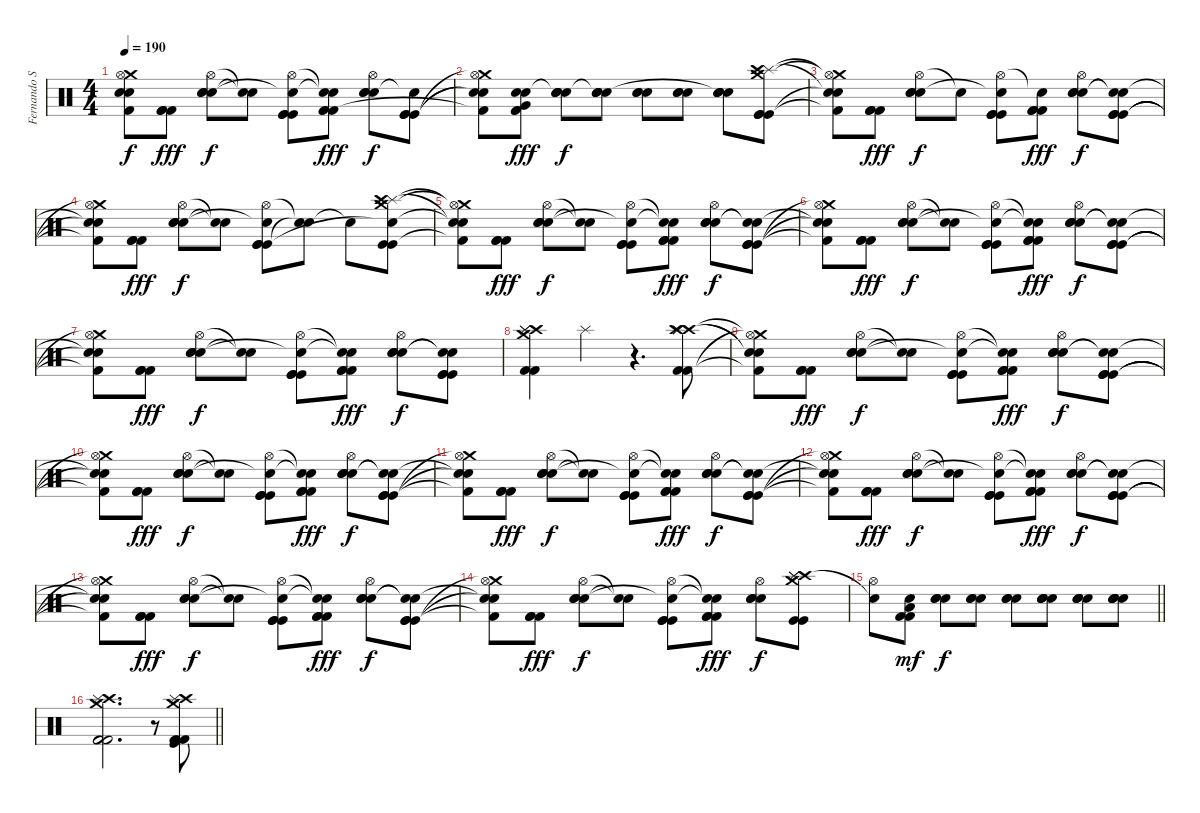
\track ("Fernando Scarcella" "Fernando S") {instrument percussion}
\staff {score}
\articulation defaults
\ts (4 4)
\tempo 190
\clef neutral
\ks c
("Crash medium (hit)"{t} "Hi-Hat (open)"{t} "Snare (hit)"{t} "Snare (hit)"{t} "Kick (hit) 2"{t}).8{dy f} ("Kick (hit) 2" "Kick (hit) 2" "Kick (hit) 2").8{dy fff} ("Hi-Hat (open)" "Electric Snare (hit)" "Electric Snare (hit)" "Electric Snare (hit)").8{dy f} ("Snare (hit)"{t} "Snare (hit)"{t}).8 ("Kick (hit)" "Hi-Hat (open)" "Snare (hit)"{t} "Kick (hit)" "Kick (hit)").8 ("Kick (hit) 2" "Snare (hit)"{t} "Snare (hit)"{t} "Kick (hit) 2" "Kick (hit) 2").8{dy fff} ("Hi-Hat (open)" "Electric Snare (hit)" "Electric Snare (hit)" "Electric Snare (hit)").8{dy f} ("Kick (hit)" "Snare (hit)"{t} "Kick (hit)" "Kick (hit)").8 |
("Crash medium (hit)"{t} "Hi-Hat (open)" "Snare (hit)"{t} "Snare (hit)"{t} "Kick (hit) 2"{t}).8 ("Kick (hit) 2" "Electric Snare (hit)" "Very Low Tom (hit)" "Electric Snare (hit)" "Kick (hit) 2").8{dy fff} ("Electric Snare (hit)" "Electric Snare (hit)" "Electric Snare (hit)" "Snare (hit)"{t}).8{dy f} ("Electric Snare (hit)" "Electric Snare (hit)" "Electric Snare (hit)" "Snare (hit)"{t}).8 ("Electric Snare (hit)" "Electric Snare (hit)" "Electric Snare (hit)").8 ("Electric Snare (hit)" "Electric Snare (hit)" "Electric Snare (hit)").8 ("Electric Snare (hit)" "Electric Snare (hit)" "Electric Snare (hit)" "Snare (hit)"{t}).8 ("Crash medium (hit)" "Splash (hit)" "Crash high (hit)" "Kick (hit)" "Kick (hit)" "Kick (hit)").8 |
("Crash medium (hit)"{t} "Hi-Hat (open)"{t} "Snare (hit)"{t} "Snare (hit)"{t} "Kick (hit) 2"{t}).8 ("Kick (hit) 2" "Kick (hit) 2" "Kick (hit) 2").8{dy fff} ("Hi-Hat (open)" "Electric Snare (hit)" "Electric Snare (hit)" "Electric Snare (hit)").8{dy f} "Snare (hit)"{t}.8 ("Kick (hit)" "Hi-Hat (open)" "Snare (hit)"{t} "Kick (hit)" "Kick (hit)").8 ("Kick (hit) 2" "Snare (hit)"{t} "Kick (hit) 2" "Kick (hit) 2").8{dy fff} ("Hi-Hat (open)" "Electric Snare (hit)" "Electric Snare (hit)" "Electric Snare (hit)").8{dy f} ("Kick (hit)" "Snare (hit)"{t} "Snare (hit)"{t} "Kick (hit)" "Kick (hit)").8 |
("Crash medium (hit)"{t} "Hi-Hat (open)" "Snare (hit)"{t} "Snare (hit)"{t} "Kick (hit) 2"{t}).8 ("Kick (hit) 2" "Kick (hit) 2" "Kick (hit) 2").8{dy fff} ("Hi-Hat (open)" "Electric Snare (hit)" "Electric Snare (hit)" "Electric Snare (hit)").8{dy f} ("Snare (hit)"{t} "Snare (hit)"{t}).8 ("Kick (hit)" "Hi-Hat (open)" "Snare (hit)"{t} "Kick (hit)" "Kick (hit)").8 ("Snare (hit)"{t} "Snare (hit)"{t}).8 "Snare (hit)"{t}.8 ("Crash medium (hit)" "Splash (hit)" "Crash high (hit)" "Snare (hit)"{t} "Kick (hit)" "Kick (hit)").8 |
("Crash medium (hit)"{t} "Hi-Hat (open)"{t} "Snare (hit)"{t} "Snare (hit)"{t} "Kick (hit) 2"{t}).8 ("Kick (hit) 2" "Kick (hit) 2" "Kick (hit) 2").8{dy fff} ("Hi-Hat (open)" "Electric Snare (hit)" "Electric Snare (hit)" "Electric Snare (hit)").8{dy f} ("Snare (hit)"{t} "Snare (hit)"{t}).8 ("Kick (hit)" "Hi-Hat (open)" "Snare (hit)"{t} "Kick (hit)" "Kick (hit)").8 ("Kick (hit) 2" "Snare (hit)"{t} "Snare (hit)"{t} "Kick (hit) 2" "Kick (hit) 2").8{dy fff} ("Hi-Hat (open)" "Electric Snare (hit)" "Electric Snare (hit)" "Electric Snare (hit)").8{dy f} ("Kick (hit)" "Snare (hit)"{t} "Snare (hit)"{t} "Kick (hit)" "Kick (hit)").8 |
("Crash medium (hit)"{t} "Hi-Hat (open)" "Snare (hit)"{t} "Snare (hit)"{t} "Kick (hit) 2"{t}).8 ("Kick (hit) 2" "Kick (hit) 2" "Kick (hit) 2").8{dy fff} ("Hi-Hat (open)" "Electric Snare (hit)" "Electric Snare (hit)" "Electric Snare (hit)").8{dy f} ("Snare (hit)"{t} "Snare (hit)"{t}).8 ("Kick (hit)" "Hi-Hat (open)" "Snare (hit)"{t} "Kick (hit)" "Kick (hit)").8 ("Kick (hit) 2" "Snare (hit)"{t} "Snare (hit)"{t} "Kick (hit) 2" "Kick (hit) 2").8{dy fff} ("Hi-Hat (open)" "Electric Snare (hit)" "Electric Snare (hit)" "Electric Snare (hit)").8{dy f} ("Kick (hit)" "Snare (hit)"{t} "Snare (hit)"{t} "Kick (hit)" "Kick (hit)").8 |
("Crash medium (hit)"{t} "Hi-Hat (open)" "Snare (hit)"{t} "Snare (hit)"{t} "Kick (hit) 2"{t}).8 ("Kick (hit) 2" "Kick (hit) 2" "Kick (hit) 2").8{dy fff} ("Hi-Hat (open)" "Electric Snare (hit)" "Electric Snare (hit)" "Electric Snare (hit)").8{dy f} ("Snare (hit)"{t} "Snare (hit)"{t}).8 ("Kick (hit)" "Hi-Hat (open)" "Snare (hit)"{t} "Kick (hit)" "Kick (hit)").8 ("Kick (hit) 2" "Snare (hit)"{t} "Snare (hit)"{t} "Kick (hit) 2" "Kick (hit) 2").8{dy fff} ("Hi-Hat (open)" "Electric Snare (hit)" "Electric Snare (hit)" "Electric Snare (hit)").8{dy f} ("Kick (hit)" "Snare (hit)"{t} "Snare (hit)"{t} "Kick (hit)" "Kick (hit)").8 |
("Kick (hit) 2" "Crash high (hit)" "Crash medium (hit)" "Splash (hit)" "Kick (hit) 2" "Splash (hit)").4 "Splash (hit)".4 r.4{d} ("Kick (hit) 2" "Crash high (hit)" "Crash high (hit)" "Splash (hit)" "Kick (hit) 2" "Splash (hit)").8 |
("Crash medium (hit)"{t} "Hi-Hat (open)"{t} "Snare (hit)"{t} "Snare (hit)"{t} "Kick (hit) 2"{t}).8 ("Kick (hit) 2" "Kick (hit) 2" "Kick (hit) 2").8{dy fff} ("Hi-Hat (open)" "Electric Snare (hit)" "Electric Snare (hit)" "Electric Snare (hit)").8{dy f} ("Snare (hit)"{t} "Snare (hit)"{t}).8 ("Kick (hit)" "Hi-Hat (open)" "Snare (hit)"{t} "Kick (hit)" "Kick (hit)").8 ("Kick (hit) 2" "Snare (hit)"{t} "Snare (hit)"{t} "Kick (hit) 2" "Kick (hit) 2").8{dy fff} ("Hi-Hat (open)" "Electric Snare (hit)" "Electric Snare (hit)" "Electric Snare (hit)").8{dy f} ("Kick (hit)" "Snare (hit)"{t} "Snare (hit)"{t} "Kick (hit)" "Kick (hit)").8 |
("Crash medium (hit)"{t} "Hi-Hat (open)" "Snare (hit)"{t} "Snare (hit)"{t} "Kick (hit) 2"{t}).8 ("Kick (hit) 2" "Kick (hit) 2" "Kick (hit) 2").8{dy fff} ("Hi-Hat (open)" "Electric Snare (hit)" "Electric Snare (hit)" "Electric Snare (hit)").8{dy f} ("Snare (hit)"{t} "Snare (hit)"{t}).8 ("Kick (hit)" "Hi-Hat (open)" "Snare (hit)"{t} "Kick (hit)" "Kick (hit)").8 ("Kick (hit) 2" "Snare (hit)"{t} "Snare (hit)"{t} "Kick (hit) 2" "Kick (hit) 2").8{dy fff} ("Hi-Hat (open)" "Electric Snare (hit)" "Electric Snare (hit)" "Electric Snare (hit)").8{dy f} ("Kick (hit)" "Snare (hit)"{t} "Snare (hit)"{t} "Kick (hit)" "Kick (hit)").8 |
("Crash medium (hit)"{t} "Hi-Hat (open)" "Snare (hit)"{t} "Snare (hit)"{t} "Kick (hit) 2"{t}).8 ("Kick (hit) 2" "Kick (hit) 2" "Kick (hit) 2").8{dy fff} ("Hi-Hat (open)" "Electric Snare (hit)" "Electric Snare (hit)" "Electric Snare (hit)").8{dy f} ("Snare (hit)"{t} "Snare (hit)"{t}).8 ("Kick (hit)" "Hi-Hat (open)" "Snare (hit)"{t} "Kick (hit)" "Kick (hit)").8 ("Kick (hit) 2" "Snare (hit)"{t} "Snare (hit)"{t} "Kick (hit) 2" "Kick (hit) 2").8{dy fff} ("Hi-Hat (open)" "Electric Snare (hit)" "Electric Snare (hit)" "Electric Snare (hit)").8{dy f} ("Kick (hit)" "Snare (hit)"{t} "Snare (hit)"{t} "Kick (hit)" "Kick (hit)").8 |
("Crash medium (hit)"{t} "Hi-Hat (open)" "Snare (hit)"{t} "Snare (hit)"{t} "Kick (hit) 2"{t}).8 ("Kick (hit) 2" "Kick (hit) 2" "Kick (hit) 2").8{dy fff} ("Hi-Hat (open)" "Electric Snare (hit)" "Electric Snare (hit)" "Electric Snare (hit)").8{dy f} ("Snare (hit)"{t} "Snare (hit)"{t}).8 ("Kick (hit)" "Hi-Hat (open)" "Snare (hit)"{t} "Kick (hit)" "Kick (hit)").8 ("Kick (hit) 2" "Snare (hit)"{t} "Snare (hit)"{t} "Kick (hit) 2" "Kick (hit) 2").8{dy fff} ("Hi-Hat (open)" "Electric Snare (hit)" "Electric Snare (hit)" "Electric Snare (hit)").8{dy f} ("Kick (hit)" "Snare (hit)"{t} "Snare (hit)"{t} "Kick (hit)" "Kick (hit)").8 |
("Crash medium (hit)"{t} "Hi-Hat (open)" "Snare (hit)"{t} "Snare (hit)"{t} "Kick (hit) 2"{t}).8 ("Kick (hit) 2" "Kick (hit) 2" "Kick (hit) 2").8{dy fff} ("Hi-Hat (open)" "Electric Snare (hit)" "Electric Snare (hit)" "Electric Snare (hit)").8{dy f} ("Snare (hit)"{t} "Snare (hit)"{t}).8 ("Kick (hit)" "Hi-Hat (open)" "Snare (hit)"{t} "Kick (hit)" "Kick (hit)").8 ("Kick (hit) 2" "Snare (hit)"{t} "Snare (hit)"{t} "Kick (hit) 2" "Kick (hit) 2").8{dy fff} ("Hi-Hat (open)" "Electric Snare (hit)" "Electric Snare (hit)" "Electric Snare (hit)").8{dy f} ("Kick (hit)" "Snare (hit)"{t} "Snare (hit)"{t} "Kick (hit)" "Kick (hit)").8 |
("Crash medium (hit)"{t} "Hi-Hat (open)" "Snare (hit)"{t} "Snare (hit)"{t} "Kick (hit) 2"{t}).8 ("Kick (hit) 2" "Kick (hit) 2" "Kick (hit) 2").8{dy fff} ("Hi-Hat (open)" "Electric Snare (hit)" "Electric Snare (hit)" "Electric Snare (hit)").8{dy f} ("Snare (hit)"{t} "Snare (hit)"{t}).8 ("Kick (hit)" "Hi-Hat (open)" "Snare (hit)"{t} "Kick (hit)" "Kick (hit)").8 ("Kick (hit) 2" "Snare (hit)"{t} "Snare (hit)"{t} "Kick (hit) 2" "Kick (hit) 2").8{dy fff} ("Hi-Hat (open)" "Electric Snare (hit)" "Electric Snare (hit)" "Electric Snare (hit)").8{dy f} ("Crash high (hit)" "Splash (hit)" "Crash medium (hit)" "Splash (hit)" "Kick (hit)" "Kick (hit)").8 |
\barLineRight lightlight
("Snare (hit)"{t} "Hi-Hat (open)").8 ("Kick (hit) 2" "Electric Snare (hit)" "Low Tom (hit)" "Kick (hit) 2").8{dy mf} ("Electric Snare (hit)" "Electric Snare (hit)" "Electric Snare (hit)").8{dy f} ("Electric Snare (hit)" "Electric Snare (hit)" "Electric Snare (hit)").8 ("Electric Snare (hit)" "Electric Snare (hit)" "Electric Snare (hit)").8 ("Electric Snare (hit)" "Electric Snare (hit)" "Electric Snare (hit)" "Electric Snare (hit)").8 ("Electric Snare (hit)" "Electric Snare (hit)" "Electric Snare (hit)" "Electric Snare (hit)").8 ("Electric Snare (hit)" "Electric Snare (hit)" "Electric Snare (hit)" "Electric Snare (hit)" "Electric Snare (hit)").8 |
\barLineRight lightlight
("Kick (hit) 2" "Crash high (hit)" "Crash medium (hit)" "Splash (hit)" "Kick (hit) 2" "Kick (hit) 2").2{d} r.8 ("Kick (hit) 2" "Crash high (hit)" "Crash medium (hit)" "Splash (hit)" "Kick (hit) 2" "Kick (hit)").8
